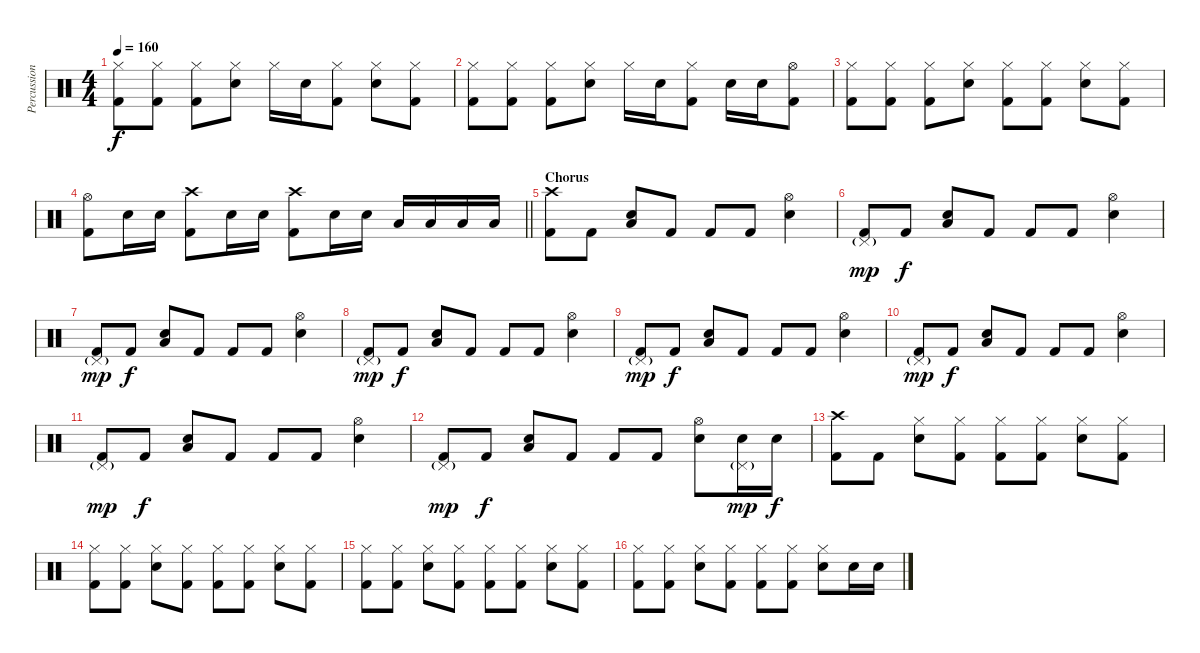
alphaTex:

\track ("Percussion" "Percussion") {instrument percussion}
\staff {score}
\articulation defaults
\ts (4 4)
\tempo 160
\clef neutral
\ks c
("Hi-Hat (closed)" "Kick (hit) 2").8{dy f} ("Hi-Hat (closed)" "Kick (hit) 2").8 ("Hi-Hat (closed)" "Kick (hit) 2").8 ("Hi-Hat (closed)" "Electric Snare (hit)").8 "Hi-Hat (closed)".16 "Electric Snare (hit)".16 ("Hi-Hat (closed)" "Kick (hit) 2").8 ("Hi-Hat (closed)" "Electric Snare (hit)").8 ("Hi-Hat (closed)" "Kick (hit) 2").8 |
("Hi-Hat (closed)" "Kick (hit) 2").8 ("Hi-Hat (closed)" "Kick (hit) 2").8 ("Hi-Hat (closed)" "Kick (hit) 2").8 ("Hi-Hat (closed)" "Electric Snare (hit)").8 "Hi-Hat (closed)".16 "Electric Snare (hit)".16 ("Hi-Hat (closed)" "Kick (hit) 2").8 "Electric Snare (hit)".16 "Electric Snare (hit)".16 ("Hi-Hat (open)" "Kick (hit) 2").8 |
("Hi-Hat (closed)" "Kick (hit) 2").8 ("Hi-Hat (closed)" "Kick (hit) 2").8 ("Hi-Hat (closed)" "Kick (hit) 2").8 ("Hi-Hat (closed)" "Electric Snare (hit)").8 ("Hi-Hat (closed)" "Kick (hit) 2").8 ("Hi-Hat (closed)" "Kick (hit) 2").8 ("Hi-Hat (closed)" "Electric Snare (hit)").8 ("Hi-Hat (closed)" "Kick (hit) 2").8 |
\barLineRight lightlight
("Hi-Hat (open)" "Kick (hit) 2").8 "Electric Snare (hit)".16 "Electric Snare (hit)".16 ("Crash high (hit)" "Kick (hit) 2").8 "Electric Snare (hit)".16 "Electric Snare (hit)".16 ("Crash high (hit)" "Kick (hit) 2").8 "Electric Snare (hit)".16 "Electric Snare (hit)".16 "Low Tom (hit)".16 "Low Tom (hit)".16 "Low Tom (hit)".16 "Low Tom (hit)".16 |
\section ("" "Chorus")
("Crash high (hit)" "Kick (hit) 2").8 "Kick (hit) 2".8 ("Electric Snare (hit)" "Low Floor Tom (hit)").8 "Kick (hit) 2".8 "Kick (hit) 2".8 "Kick (hit) 2".8 ("Hi-Hat (open)" "Electric Snare (hit)").4 |
("Pedal Hi-Hat (hit)"{g} "Kick (hit) 2").8{dy mp} "Kick (hit) 2".8{dy f} ("Electric Snare (hit)" "Low Floor Tom (hit)").8 "Kick (hit) 2".8 "Kick (hit) 2".8 "Kick (hit) 2".8 ("Hi-Hat (open)" "Electric Snare (hit)").4 |
("Pedal Hi-Hat (hit)"{g} "Kick (hit) 2").8{dy mp} "Kick (hit) 2".8{dy f} ("Electric Snare (hit)" "Low Floor Tom (hit)").8 "Kick (hit) 2".8 "Kick (hit) 2".8 "Kick (hit) 2".8 ("Hi-Hat (open)" "Electric Snare (hit)").4 |
("Pedal Hi-Hat (hit)"{g} "Kick (hit) 2").8{dy mp} "Kick (hit) 2".8{dy f} ("Electric Snare (hit)" "Low Floor Tom (hit)").8 "Kick (hit) 2".8 "Kick (hit) 2".8 "Kick (hit) 2".8 ("Hi-Hat (open)" "Electric Snare (hit)").4 |
("Pedal Hi-Hat (hit)"{g} "Kick (hit) 2").8{dy mp} "Kick (hit) 2".8{dy f} ("Electric Snare (hit)" "Low Floor Tom (hit)").8 "Kick (hit) 2".8 "Kick (hit) 2".8 "Kick (hit) 2".8 ("Hi-Hat (open)" "Electric Snare (hit)").4 |
("Pedal Hi-Hat (hit)"{g} "Kick (hit) 2").8{dy mp} "Kick (hit) 2".8{dy f} ("Electric Snare (hit)" "Low Floor Tom (hit)").8 "Kick (hit) 2".8 "Kick (hit) 2".8 "Kick (hit) 2".8 ("Hi-Hat (open)" "Electric Snare (hit)").4 |
("Pedal Hi-Hat (hit)"{g} "Kick (hit) 2").8{dy mp} "Kick (hit) 2".8{dy f} ("Electric Snare (hit)" "Low Floor Tom (hit)").8 "Kick (hit) 2".8 "Kick (hit) 2".8 "Kick (hit) 2".8 ("Hi-Hat (open)" "Electric Snare (hit)").4 |
("Pedal Hi-Hat (hit)"{g} "Kick (hit) 2").8{dy mp} "Kick (hit) 2".8{dy f} ("Electric Snare (hit)" "Low Floor Tom (hit)").8 "Kick (hit) 2".8 "Kick (hit) 2".8 "Kick (hit) 2".8 ("Hi-Hat (open)" "Electric Snare (hit)").8 ("Pedal Hi-Hat (hit)"{g} "Electric Snare (hit)").16{dy mp} "Electric Snare (hit)".16{dy f} |
("Crash high (hit)" "Kick (hit) 2").8 "Kick (hit) 2".8 ("Hi-Hat (closed)" "Electric Snare (hit)").8 ("Hi-Hat (closed)" "Kick (hit) 2").8 ("Hi-Hat (closed)" "Kick (hit) 2").8 ("Hi-Hat (closed)" "Kick (hit) 2").8 ("Hi-Hat (closed)" "Electric Snare (hit)").8 ("Hi-Hat (closed)" "Kick (hit) 2").8 |
("Hi-Hat (closed)" "Kick (hit) 2").8 ("Hi-Hat (closed)" "Kick (hit) 2").8 ("Hi-Hat (closed)" "Electric Snare (hit)").8 ("Hi-Hat (closed)" "Kick (hit) 2").8 ("Hi-Hat (closed)" "Kick (hit) 2").8 ("Hi-Hat (closed)" "Kick (hit) 2").8 ("Hi-Hat (closed)" "Electric Snare (hit)").8 ("Hi-Hat (closed)" "Kick (hit) 2").8 |
("Hi-Hat (closed)" "Kick (hit) 2").8 ("Hi-Hat (closed)" "Kick (hit) 2").8 ("Hi-Hat (closed)" "Electric Snare (hit)").8 ("Hi-Hat (closed)" "Kick (hit) 2").8 ("Hi-Hat (closed)" "Kick (hit) 2").8 ("Hi-Hat (closed)" "Kick (hit) 2").8 ("Hi-Hat (closed)" "Electric Snare (hit)").8 ("Hi-Hat (closed)" "Kick (hit) 2").8 |
("Hi-Hat (closed)" "Kick (hit) 2").8 ("Hi-Hat (closed)" "Kick (hit) 2").8 ("Hi-Hat (closed)" "Electric Snare (hit)").8 ("Hi-Hat (closed)" "Kick (hit) 2").8 ("Hi-Hat (closed)" "Kick (hit) 2").8 ("Hi-Hat (closed)" "Kick (hit) 2").8 ("Hi-Hat (closed)" "Electric Snare (hit)").8 "Electric Snare (hit)".16 "Electric Snare (hit)".16
